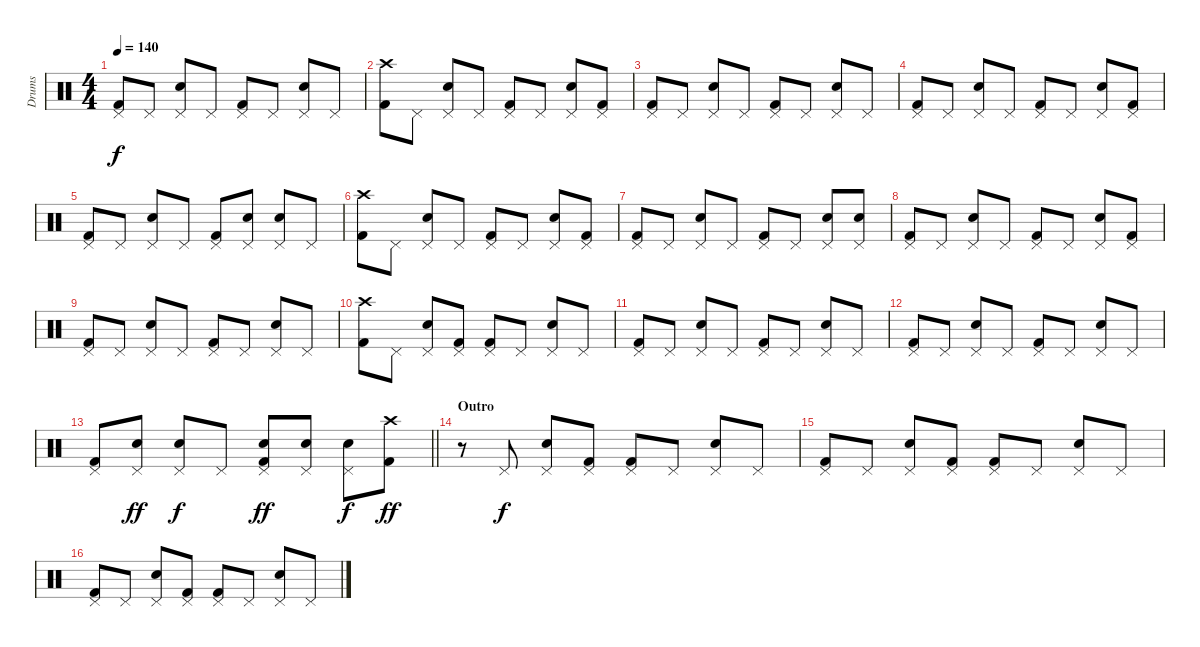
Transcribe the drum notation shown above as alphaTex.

\track ("Drums" "Drums") {instrument percussion}
\staff {score}
\articulation defaults
\ts (4 4)
\tempo 140
\clef neutral
\ks c
("Pedal Hi-Hat (hit)" "Kick (hit) 2").8{dy f} "Pedal Hi-Hat (hit)".8 ("Pedal Hi-Hat (hit)" "Electric Snare (hit)").8 "Pedal Hi-Hat (hit)".8 ("Pedal Hi-Hat (hit)" "Kick (hit) 2").8 "Pedal Hi-Hat (hit)".8 ("Pedal Hi-Hat (hit)" "Electric Snare (hit)").8 "Pedal Hi-Hat (hit)".8 |
("Crash high (hit)" "Kick (hit) 2").8 "Pedal Hi-Hat (hit)".8 ("Pedal Hi-Hat (hit)" "Electric Snare (hit)").8 "Pedal Hi-Hat (hit)".8 ("Pedal Hi-Hat (hit)" "Kick (hit) 2").8 "Pedal Hi-Hat (hit)".8 ("Pedal Hi-Hat (hit)" "Electric Snare (hit)").8 ("Pedal Hi-Hat (hit)" "Kick (hit) 2").8 |
("Pedal Hi-Hat (hit)" "Kick (hit) 2").8 "Pedal Hi-Hat (hit)".8 ("Pedal Hi-Hat (hit)" "Electric Snare (hit)").8 "Pedal Hi-Hat (hit)".8 ("Pedal Hi-Hat (hit)" "Kick (hit) 2").8 "Pedal Hi-Hat (hit)".8 ("Pedal Hi-Hat (hit)" "Electric Snare (hit)").8 "Pedal Hi-Hat (hit)".8 |
("Pedal Hi-Hat (hit)" "Kick (hit) 2").8 "Pedal Hi-Hat (hit)".8 ("Pedal Hi-Hat (hit)" "Electric Snare (hit)").8 "Pedal Hi-Hat (hit)".8 ("Pedal Hi-Hat (hit)" "Kick (hit) 2").8 "Pedal Hi-Hat (hit)".8 ("Pedal Hi-Hat (hit)" "Electric Snare (hit)").8 ("Pedal Hi-Hat (hit)" "Kick (hit) 2").8 |
("Pedal Hi-Hat (hit)" "Kick (hit) 2").8 "Pedal Hi-Hat (hit)".8 ("Pedal Hi-Hat (hit)" "Electric Snare (hit)").8 "Pedal Hi-Hat (hit)".8 ("Pedal Hi-Hat (hit)" "Kick (hit) 2").8 ("Pedal Hi-Hat (hit)" "Electric Snare (hit)").8 ("Pedal Hi-Hat (hit)" "Electric Snare (hit)").8 "Pedal Hi-Hat (hit)".8 |
("Crash high (hit)" "Kick (hit) 2").8 "Pedal Hi-Hat (hit)".8 ("Pedal Hi-Hat (hit)" "Electric Snare (hit)").8 "Pedal Hi-Hat (hit)".8 ("Pedal Hi-Hat (hit)" "Kick (hit) 2").8 "Pedal Hi-Hat (hit)".8 ("Pedal Hi-Hat (hit)" "Electric Snare (hit)").8 ("Pedal Hi-Hat (hit)" "Kick (hit) 2").8 |
("Pedal Hi-Hat (hit)" "Kick (hit) 2").8 "Pedal Hi-Hat (hit)".8 ("Pedal Hi-Hat (hit)" "Electric Snare (hit)").8 "Pedal Hi-Hat (hit)".8 ("Pedal Hi-Hat (hit)" "Kick (hit) 2").8 "Pedal Hi-Hat (hit)".8 ("Pedal Hi-Hat (hit)" "Electric Snare (hit)").8 ("Pedal Hi-Hat (hit)" "Electric Snare (hit)").8 |
("Pedal Hi-Hat (hit)" "Kick (hit) 2").8 "Pedal Hi-Hat (hit)".8 ("Pedal Hi-Hat (hit)" "Electric Snare (hit)").8 "Pedal Hi-Hat (hit)".8 ("Pedal Hi-Hat (hit)" "Kick (hit) 2").8 "Pedal Hi-Hat (hit)".8 ("Pedal Hi-Hat (hit)" "Electric Snare (hit)").8 ("Pedal Hi-Hat (hit)" "Kick (hit) 2").8 |
("Pedal Hi-Hat (hit)" "Kick (hit) 2").8 "Pedal Hi-Hat (hit)".8 ("Pedal Hi-Hat (hit)" "Electric Snare (hit)").8 "Pedal Hi-Hat (hit)".8 ("Pedal Hi-Hat (hit)" "Kick (hit) 2").8 "Pedal Hi-Hat (hit)".8 ("Pedal Hi-Hat (hit)" "Electric Snare (hit)").8 "Pedal Hi-Hat (hit)".8 |
("Crash high (hit)" "Kick (hit) 2").8 "Pedal Hi-Hat (hit)".8 ("Pedal Hi-Hat (hit)" "Electric Snare (hit)").8 ("Pedal Hi-Hat (hit)" "Kick (hit) 2").8 ("Pedal Hi-Hat (hit)" "Kick (hit) 2").8 "Pedal Hi-Hat (hit)".8 ("Pedal Hi-Hat (hit)" "Electric Snare (hit)").8 "Pedal Hi-Hat (hit)".8 |
("Pedal Hi-Hat (hit)" "Kick (hit) 2").8 "Pedal Hi-Hat (hit)".8 ("Pedal Hi-Hat (hit)" "Electric Snare (hit)").8 "Pedal Hi-Hat (hit)".8 ("Pedal Hi-Hat (hit)" "Kick (hit) 2").8 "Pedal Hi-Hat (hit)".8 ("Pedal Hi-Hat (hit)" "Electric Snare (hit)").8 "Pedal Hi-Hat (hit)".8 |
("Pedal Hi-Hat (hit)" "Kick (hit) 2").8 "Pedal Hi-Hat (hit)".8 ("Pedal Hi-Hat (hit)" "Electric Snare (hit)").8 "Pedal Hi-Hat (hit)".8 ("Pedal Hi-Hat (hit)" "Kick (hit) 2").8 "Pedal Hi-Hat (hit)".8 ("Pedal Hi-Hat (hit)" "Electric Snare (hit)").8 "Pedal Hi-Hat (hit)".8 |
\barLineRight lightlight
("Pedal Hi-Hat (hit)" "Kick (hit) 2").8 ("Pedal Hi-Hat (hit)" "Electric Snare (hit)").8{dy ff} ("Pedal Hi-Hat (hit)" "Electric Snare (hit)").8{dy f} "Pedal Hi-Hat (hit)".8 ("Pedal Hi-Hat (hit)" "Electric Snare (hit)" "Kick (hit) 2").8{dy ff} ("Pedal Hi-Hat (hit)" "Electric Snare (hit)").8 ("Pedal Hi-Hat (hit)" "Electric Snare (hit)").8{dy f} ("Crash high (hit)" "Kick (hit) 2").8{dy ff} |
\section ("" "Outro")
r.8 "Pedal Hi-Hat (hit)".8{dy f} ("Pedal Hi-Hat (hit)" "Electric Snare (hit)").8 ("Pedal Hi-Hat (hit)" "Kick (hit) 2").8 ("Pedal Hi-Hat (hit)" "Kick (hit) 2").8 "Pedal Hi-Hat (hit)".8 ("Pedal Hi-Hat (hit)" "Electric Snare (hit)").8 "Pedal Hi-Hat (hit)".8 |
("Pedal Hi-Hat (hit)" "Kick (hit) 2").8 "Pedal Hi-Hat (hit)".8 ("Pedal Hi-Hat (hit)" "Electric Snare (hit)").8 ("Pedal Hi-Hat (hit)" "Kick (hit) 2").8 ("Pedal Hi-Hat (hit)" "Kick (hit) 2").8 "Pedal Hi-Hat (hit)".8 ("Pedal Hi-Hat (hit)" "Electric Snare (hit)").8 "Pedal Hi-Hat (hit)".8 |
("Pedal Hi-Hat (hit)" "Kick (hit) 2").8 "Pedal Hi-Hat (hit)".8 ("Pedal Hi-Hat (hit)" "Electric Snare (hit)").8 ("Pedal Hi-Hat (hit)" "Kick (hit) 2").8 ("Pedal Hi-Hat (hit)" "Kick (hit) 2").8 "Pedal Hi-Hat (hit)".8 ("Pedal Hi-Hat (hit)" "Electric Snare (hit)").8 "Pedal Hi-Hat (hit)".8
